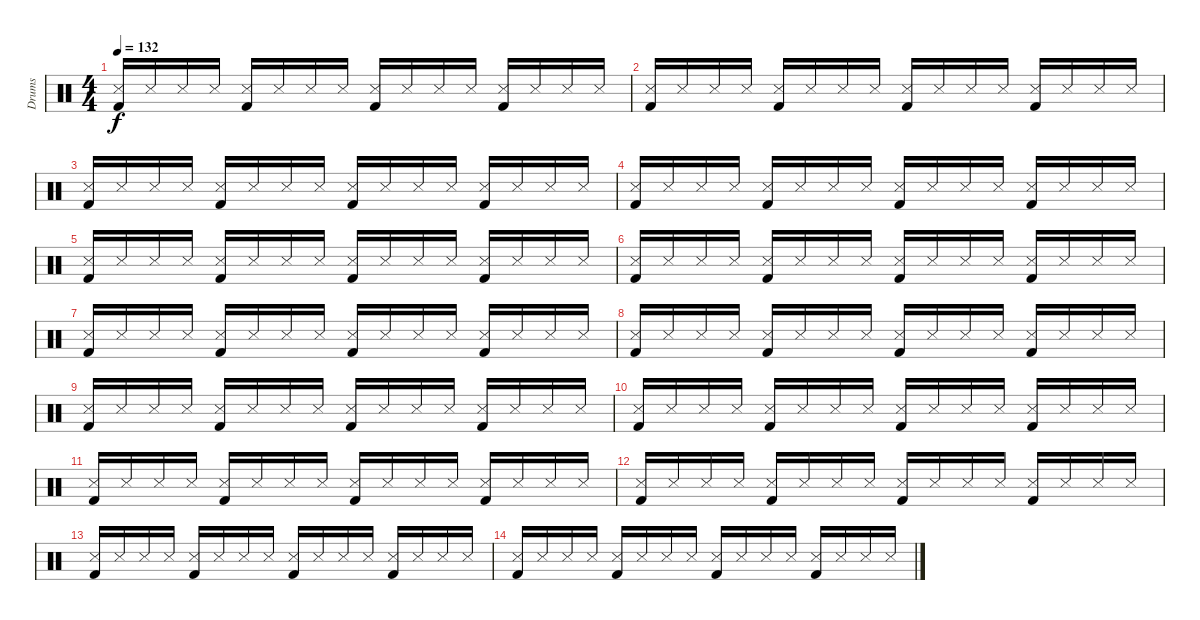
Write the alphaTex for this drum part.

\track ("Drums" "Drums") {instrument percussion}
\staff {score}
\articulation defaults
\ts (4 4)
\tempo 132
\clef neutral
\ks c
("Snare (side stick) 3" "Kick (hit) 2").16{dy f} "Snare (side stick) 3".16 "Snare (side stick) 3".16 "Snare (side stick) 3".16 ("Snare (side stick) 3" "Kick (hit) 2").16 "Snare (side stick) 3".16 "Snare (side stick) 3".16 "Snare (side stick) 3".16 ("Snare (side stick) 3" "Kick (hit) 2").16 "Snare (side stick) 3".16 "Snare (side stick) 3".16 "Snare (side stick) 3".16 ("Snare (side stick) 3" "Kick (hit) 2").16 "Snare (side stick) 3".16 "Snare (side stick) 3".16 "Snare (side stick) 3".16 |
("Snare (side stick) 3" "Kick (hit) 2").16 "Snare (side stick) 3".16 "Snare (side stick) 3".16 "Snare (side stick) 3".16 ("Snare (side stick) 3" "Kick (hit) 2").16 "Snare (side stick) 3".16 "Snare (side stick) 3".16 "Snare (side stick) 3".16 ("Snare (side stick) 3" "Kick (hit) 2").16 "Snare (side stick) 3".16 "Snare (side stick) 3".16 "Snare (side stick) 3".16 ("Snare (side stick) 3" "Kick (hit) 2").16 "Snare (side stick) 3".16 "Snare (side stick) 3".16 "Snare (side stick) 3".16 |
("Snare (side stick) 3" "Kick (hit) 2").16 "Snare (side stick) 3".16 "Snare (side stick) 3".16 "Snare (side stick) 3".16 ("Snare (side stick) 3" "Kick (hit) 2").16 "Snare (side stick) 3".16 "Snare (side stick) 3".16 "Snare (side stick) 3".16 ("Snare (side stick) 3" "Kick (hit) 2").16 "Snare (side stick) 3".16 "Snare (side stick) 3".16 "Snare (side stick) 3".16 ("Snare (side stick) 3" "Kick (hit) 2").16 "Snare (side stick) 3".16 "Snare (side stick) 3".16 "Snare (side stick) 3".16 |
("Snare (side stick) 3" "Kick (hit) 2").16 "Snare (side stick) 3".16 "Snare (side stick) 3".16 "Snare (side stick) 3".16 ("Snare (side stick) 3" "Kick (hit) 2").16 "Snare (side stick) 3".16 "Snare (side stick) 3".16 "Snare (side stick) 3".16 ("Snare (side stick) 3" "Kick (hit) 2").16 "Snare (side stick) 3".16 "Snare (side stick) 3".16 "Snare (side stick) 3".16 ("Snare (side stick) 3" "Kick (hit) 2").16 "Snare (side stick) 3".16 "Snare (side stick) 3".16 "Snare (side stick) 3".16 |
("Snare (side stick) 3" "Kick (hit) 2").16 "Snare (side stick) 3".16 "Snare (side stick) 3".16 "Snare (side stick) 3".16 ("Snare (side stick) 3" "Kick (hit) 2").16 "Snare (side stick) 3".16 "Snare (side stick) 3".16 "Snare (side stick) 3".16 ("Snare (side stick) 3" "Kick (hit) 2").16 "Snare (side stick) 3".16 "Snare (side stick) 3".16 "Snare (side stick) 3".16 ("Snare (side stick) 3" "Kick (hit) 2").16 "Snare (side stick) 3".16 "Snare (side stick) 3".16 "Snare (side stick) 3".16 |
("Snare (side stick) 3" "Kick (hit) 2").16 "Snare (side stick) 3".16 "Snare (side stick) 3".16 "Snare (side stick) 3".16 ("Snare (side stick) 3" "Kick (hit) 2").16 "Snare (side stick) 3".16 "Snare (side stick) 3".16 "Snare (side stick) 3".16 ("Snare (side stick) 3" "Kick (hit) 2").16 "Snare (side stick) 3".16 "Snare (side stick) 3".16 "Snare (side stick) 3".16 ("Snare (side stick) 3" "Kick (hit) 2").16 "Snare (side stick) 3".16 "Snare (side stick) 3".16 "Snare (side stick) 3".16 |
("Snare (side stick) 3" "Kick (hit) 2").16 "Snare (side stick) 3".16 "Snare (side stick) 3".16 "Snare (side stick) 3".16 ("Snare (side stick) 3" "Kick (hit) 2").16 "Snare (side stick) 3".16 "Snare (side stick) 3".16 "Snare (side stick) 3".16 ("Snare (side stick) 3" "Kick (hit) 2").16 "Snare (side stick) 3".16 "Snare (side stick) 3".16 "Snare (side stick) 3".16 ("Snare (side stick) 3" "Kick (hit) 2").16 "Snare (side stick) 3".16 "Snare (side stick) 3".16 "Snare (side stick) 3".16 |
("Snare (side stick) 3" "Kick (hit) 2").16 "Snare (side stick) 3".16 "Snare (side stick) 3".16 "Snare (side stick) 3".16 ("Snare (side stick) 3" "Kick (hit) 2").16 "Snare (side stick) 3".16 "Snare (side stick) 3".16 "Snare (side stick) 3".16 ("Snare (side stick) 3" "Kick (hit) 2").16 "Snare (side stick) 3".16 "Snare (side stick) 3".16 "Snare (side stick) 3".16 ("Snare (side stick) 3" "Kick (hit) 2").16 "Snare (side stick) 3".16 "Snare (side stick) 3".16 "Snare (side stick) 3".16 |
("Snare (side stick) 3" "Kick (hit) 2").16 "Snare (side stick) 3".16 "Snare (side stick) 3".16 "Snare (side stick) 3".16 ("Snare (side stick) 3" "Kick (hit) 2").16 "Snare (side stick) 3".16 "Snare (side stick) 3".16 "Snare (side stick) 3".16 ("Snare (side stick) 3" "Kick (hit) 2").16 "Snare (side stick) 3".16 "Snare (side stick) 3".16 "Snare (side stick) 3".16 ("Snare (side stick) 3" "Kick (hit) 2").16 "Snare (side stick) 3".16 "Snare (side stick) 3".16 "Snare (side stick) 3".16 |
("Snare (side stick) 3" "Kick (hit) 2").16 "Snare (side stick) 3".16 "Snare (side stick) 3".16 "Snare (side stick) 3".16 ("Snare (side stick) 3" "Kick (hit) 2").16 "Snare (side stick) 3".16 "Snare (side stick) 3".16 "Snare (side stick) 3".16 ("Snare (side stick) 3" "Kick (hit) 2").16 "Snare (side stick) 3".16 "Snare (side stick) 3".16 "Snare (side stick) 3".16 ("Snare (side stick) 3" "Kick (hit) 2").16 "Snare (side stick) 3".16 "Snare (side stick) 3".16 "Snare (side stick) 3".16 |
("Snare (side stick) 3" "Kick (hit) 2").16 "Snare (side stick) 3".16 "Snare (side stick) 3".16 "Snare (side stick) 3".16 ("Snare (side stick) 3" "Kick (hit) 2").16 "Snare (side stick) 3".16 "Snare (side stick) 3".16 "Snare (side stick) 3".16 ("Snare (side stick) 3" "Kick (hit) 2").16 "Snare (side stick) 3".16 "Snare (side stick) 3".16 "Snare (side stick) 3".16 ("Snare (side stick) 3" "Kick (hit) 2").16 "Snare (side stick) 3".16 "Snare (side stick) 3".16 "Snare (side stick) 3".16 |
("Snare (side stick) 3" "Kick (hit) 2").16 "Snare (side stick) 3".16 "Snare (side stick) 3".16 "Snare (side stick) 3".16 ("Snare (side stick) 3" "Kick (hit) 2").16 "Snare (side stick) 3".16 "Snare (side stick) 3".16 "Snare (side stick) 3".16 ("Snare (side stick) 3" "Kick (hit) 2").16 "Snare (side stick) 3".16 "Snare (side stick) 3".16 "Snare (side stick) 3".16 ("Snare (side stick) 3" "Kick (hit) 2").16 "Snare (side stick) 3".16 "Snare (side stick) 3".16 "Snare (side stick) 3".16 |
("Snare (side stick) 3" "Kick (hit) 2").16 "Snare (side stick) 3".16 "Snare (side stick) 3".16 "Snare (side stick) 3".16 ("Snare (side stick) 3" "Kick (hit) 2").16 "Snare (side stick) 3".16 "Snare (side stick) 3".16 "Snare (side stick) 3".16 ("Snare (side stick) 3" "Kick (hit) 2").16 "Snare (side stick) 3".16 "Snare (side stick) 3".16 "Snare (side stick) 3".16 ("Snare (side stick) 3" "Kick (hit) 2").16 "Snare (side stick) 3".16 "Snare (side stick) 3".16 "Snare (side stick) 3".16 |
("Snare (side stick) 3" "Kick (hit) 2").16 "Snare (side stick) 3".16 "Snare (side stick) 3".16 "Snare (side stick) 3".16 ("Snare (side stick) 3" "Kick (hit) 2").16 "Snare (side stick) 3".16 "Snare (side stick) 3".16 "Snare (side stick) 3".16 ("Snare (side stick) 3" "Kick (hit) 2").16 "Snare (side stick) 3".16 "Snare (side stick) 3".16 "Snare (side stick) 3".16 ("Snare (side stick) 3" "Kick (hit) 2").16 "Snare (side stick) 3".16 "Snare (side stick) 3".16 "Snare (side stick) 3".16
